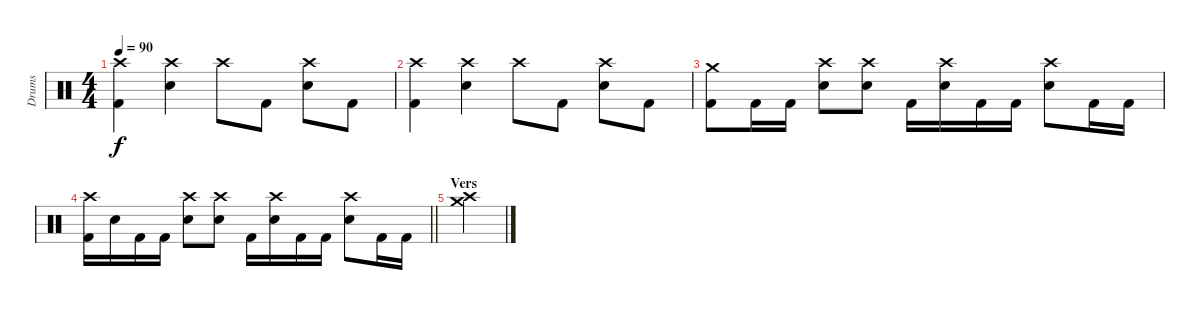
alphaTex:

\track ("Drums" "Drums") {instrument percussion}
\staff {score}
\articulation defaults
\ts (4 4)
\tempo 90
\clef neutral
\ks c
("Crash high (hit)" "Kick (hit) 2").4{dy f} ("Snare (hit) 2" "Crash high (hit)").4 "Crash high (hit)".8 "Kick (hit) 2".8 ("Snare (hit) 2" "Crash high (hit)").8 "Kick (hit) 2".8 |
("Crash high (hit)" "Kick (hit) 2").4 ("Snare (hit) 2" "Crash high (hit)").4 "Crash high (hit)".8 "Kick (hit) 2".8 ("Snare (hit) 2" "Crash high (hit)").8 "Kick (hit) 2".8 |
("Crash medium (hit)" "Kick (hit) 2").8 "Kick (hit) 2".16 "Kick (hit) 2".16 ("Snare (hit) 2" "Crash high (hit)").8 ("Snare (hit) 2" "Crash high (hit)").8 "Kick (hit) 2".16 ("Snare (hit) 2" "Crash high (hit)").16 "Kick (hit) 2".16 "Kick (hit) 2".16 ("Snare (hit) 2" "Crash high (hit)").8 "Kick (hit) 2".16 "Kick (hit) 2".16 |
\barLineRight lightlight
("Crash high (hit)" "Kick (hit) 2").16 "Snare (hit) 2".16 "Kick (hit) 2".16 "Kick (hit) 2".16 ("Snare (hit) 2" "Crash high (hit)").8 ("Snare (hit) 2" "Crash high (hit)").8 "Kick (hit) 2".16 ("Snare (hit) 2" "Crash high (hit)").16 "Kick (hit) 2".16 "Kick (hit) 2".16 ("Snare (hit) 2" "Crash high (hit)").8 "Kick (hit) 2".16 "Kick (hit) 2".16 |
\section ("" "Vers")
("Crash medium (hit)" "Crash high (hit)").4
